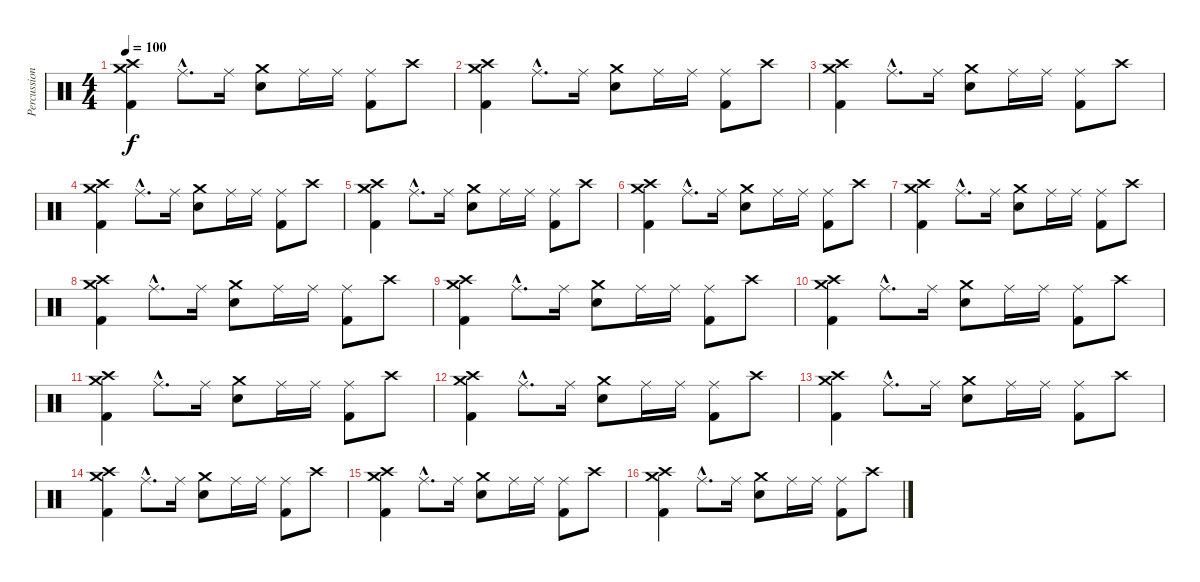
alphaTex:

\track ("Percussion" "Percussion") {instrument percussion}
\staff {score}
\articulation defaults
\ts (4 4)
\tempo 100
\clef neutral
\ks c
("Crash medium (hit)" "Crash high (hit)" "Kick (hit) 2").4{dy f} "Ride (middle)"{hac}.8{d} "Ride (middle)".16 ("Crash medium (hit)" "Snare (hit) 2").8 "Ride (middle)".16 "Ride (middle)".16 ("Ride (middle)" "Kick (hit) 2").8 "Crash high (hit)".8 |
("Crash medium (hit)" "Crash high (hit)" "Kick (hit) 2").4 "Ride (middle)"{hac}.8{d} "Ride (middle)".16 ("Crash medium (hit)" "Snare (hit) 2").8 "Ride (middle)".16 "Ride (middle)".16 ("Ride (middle)" "Kick (hit) 2").8 "Crash high (hit)".8 |
("Crash medium (hit)" "Crash high (hit)" "Kick (hit) 2").4 "Ride (middle)"{hac}.8{d} "Ride (middle)".16 ("Crash medium (hit)" "Snare (hit) 2").8 "Ride (middle)".16 "Ride (middle)".16 ("Ride (middle)" "Kick (hit) 2").8 "Crash high (hit)".8 |
("Crash medium (hit)" "Crash high (hit)" "Kick (hit) 2").4 "Ride (middle)"{hac}.8{d} "Ride (middle)".16 ("Crash medium (hit)" "Snare (hit) 2").8 "Ride (middle)".16 "Ride (middle)".16 ("Ride (middle)" "Kick (hit) 2").8 "Crash high (hit)".8 |
("Crash medium (hit)" "Crash high (hit)" "Kick (hit) 2").4 "Ride (middle)"{hac}.8{d} "Ride (middle)".16 ("Crash medium (hit)" "Snare (hit) 2").8 "Ride (middle)".16 "Ride (middle)".16 ("Ride (middle)" "Kick (hit) 2").8 "Crash high (hit)".8 |
("Crash medium (hit)" "Crash high (hit)" "Kick (hit) 2").4 "Ride (middle)"{hac}.8{d} "Ride (middle)".16 ("Crash medium (hit)" "Snare (hit) 2").8 "Ride (middle)".16 "Ride (middle)".16 ("Ride (middle)" "Kick (hit) 2").8 "Crash high (hit)".8 |
("Crash medium (hit)" "Crash high (hit)" "Kick (hit) 2").4 "Ride (middle)"{hac}.8{d} "Ride (middle)".16 ("Crash medium (hit)" "Snare (hit) 2").8 "Ride (middle)".16 "Ride (middle)".16 ("Ride (middle)" "Kick (hit) 2").8 "Crash high (hit)".8 |
("Crash medium (hit)" "Crash high (hit)" "Kick (hit) 2").4 "Ride (middle)"{hac}.8{d} "Ride (middle)".16 ("Crash medium (hit)" "Snare (hit) 2").8 "Ride (middle)".16 "Ride (middle)".16 ("Ride (middle)" "Kick (hit) 2").8 "Crash high (hit)".8 |
("Crash medium (hit)" "Crash high (hit)" "Kick (hit) 2").4 "Ride (middle)"{hac}.8{d} "Ride (middle)".16 ("Crash medium (hit)" "Snare (hit) 2").8 "Ride (middle)".16 "Ride (middle)".16 ("Ride (middle)" "Kick (hit) 2").8 "Crash high (hit)".8 |
("Crash medium (hit)" "Crash high (hit)" "Kick (hit) 2").4 "Ride (middle)"{hac}.8{d} "Ride (middle)".16 ("Crash medium (hit)" "Snare (hit) 2").8 "Ride (middle)".16 "Ride (middle)".16 ("Ride (middle)" "Kick (hit) 2").8 "Crash high (hit)".8 |
("Crash medium (hit)" "Crash high (hit)" "Kick (hit) 2").4 "Ride (middle)"{hac}.8{d} "Ride (middle)".16 ("Crash medium (hit)" "Snare (hit) 2").8 "Ride (middle)".16 "Ride (middle)".16 ("Ride (middle)" "Kick (hit) 2").8 "Crash high (hit)".8 |
("Crash medium (hit)" "Crash high (hit)" "Kick (hit) 2").4 "Ride (middle)"{hac}.8{d} "Ride (middle)".16 ("Crash medium (hit)" "Snare (hit) 2").8 "Ride (middle)".16 "Ride (middle)".16 ("Ride (middle)" "Kick (hit) 2").8 "Crash high (hit)".8 |
("Crash medium (hit)" "Crash high (hit)" "Kick (hit) 2").4 "Ride (middle)"{hac}.8{d} "Ride (middle)".16 ("Crash medium (hit)" "Snare (hit) 2").8 "Ride (middle)".16 "Ride (middle)".16 ("Ride (middle)" "Kick (hit) 2").8 "Crash high (hit)".8 |
("Crash medium (hit)" "Crash high (hit)" "Kick (hit) 2").4 "Ride (middle)"{hac}.8{d} "Ride (middle)".16 ("Crash medium (hit)" "Snare (hit) 2").8 "Ride (middle)".16 "Ride (middle)".16 ("Ride (middle)" "Kick (hit) 2").8 "Crash high (hit)".8 |
("Crash medium (hit)" "Crash high (hit)" "Kick (hit) 2").4 "Ride (middle)"{hac}.8{d} "Ride (middle)".16 ("Crash medium (hit)" "Snare (hit) 2").8 "Ride (middle)".16 "Ride (middle)".16 ("Ride (middle)" "Kick (hit) 2").8 "Crash high (hit)".8 |
("Crash medium (hit)" "Crash high (hit)" "Kick (hit) 2").4 "Ride (middle)"{hac}.8{d} "Ride (middle)".16 ("Crash medium (hit)" "Snare (hit) 2").8 "Ride (middle)".16 "Ride (middle)".16 ("Ride (middle)" "Kick (hit) 2").8 "Crash high (hit)".8
